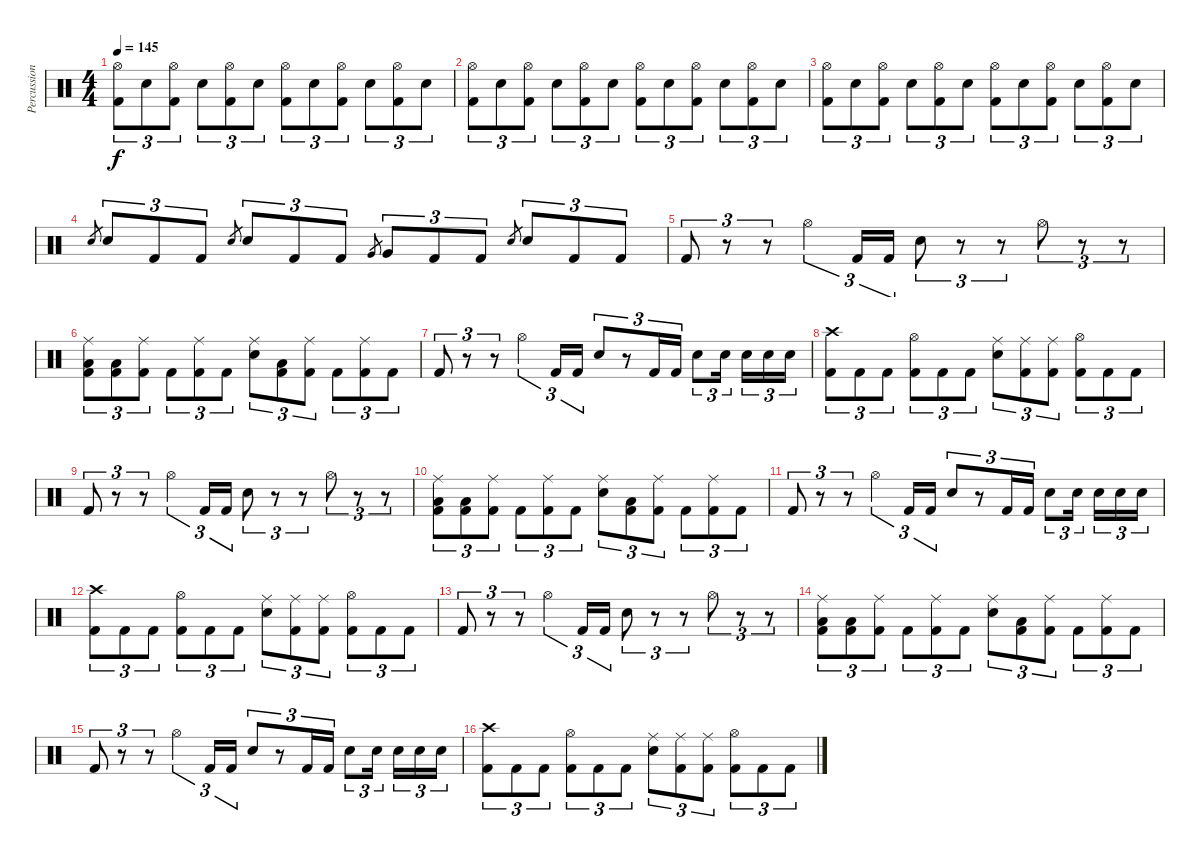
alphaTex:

\track ("Percussion" "Percussion") {instrument percussion}
\staff {score}
\articulation defaults
\ts (4 4)
\tempo 145
\clef neutral
\ks c
("Hi-Hat (open)" "Kick (hit) 2").8{tu (3 2) dy f} "Electric Snare (hit)".8{tu (3 2)} ("Hi-Hat (open)" "Kick (hit) 2").8{tu (3 2)} "Electric Snare (hit)".8{tu (3 2)} ("Hi-Hat (open)" "Kick (hit) 2").8{tu (3 2)} "Electric Snare (hit)".8{tu (3 2)} ("Hi-Hat (open)" "Kick (hit) 2").8{tu (3 2)} "Electric Snare (hit)".8{tu (3 2)} ("Hi-Hat (open)" "Kick (hit) 2").8{tu (3 2)} "Electric Snare (hit)".8{tu (3 2)} ("Hi-Hat (open)" "Kick (hit) 2").8{tu (3 2)} "Electric Snare (hit)".8{tu (3 2)} |
("Hi-Hat (open)" "Kick (hit) 2").8{tu (3 2)} "Electric Snare (hit)".8{tu (3 2)} ("Hi-Hat (open)" "Kick (hit) 2").8{tu (3 2)} "Electric Snare (hit)".8{tu (3 2)} ("Hi-Hat (open)" "Kick (hit) 2").8{tu (3 2)} "Electric Snare (hit)".8{tu (3 2)} ("Hi-Hat (open)" "Kick (hit) 2").8{tu (3 2)} "Electric Snare (hit)".8{tu (3 2)} ("Hi-Hat (open)" "Kick (hit) 2").8{tu (3 2)} "Electric Snare (hit)".8{tu (3 2)} ("Hi-Hat (open)" "Kick (hit) 2").8{tu (3 2)} "Electric Snare (hit)".8{tu (3 2)} |
("Hi-Hat (open)" "Kick (hit) 2").8{tu (3 2)} "Electric Snare (hit)".8{tu (3 2)} ("Hi-Hat (open)" "Kick (hit) 2").8{tu (3 2)} "Electric Snare (hit)".8{tu (3 2)} ("Hi-Hat (open)" "Kick (hit) 2").8{tu (3 2)} "Electric Snare (hit)".8{tu (3 2)} ("Hi-Hat (open)" "Kick (hit) 2").8{tu (3 2)} "Electric Snare (hit)".8{tu (3 2)} ("Hi-Hat (open)" "Kick (hit) 2").8{tu (3 2)} "Electric Snare (hit)".8{tu (3 2)} ("Hi-Hat (open)" "Kick (hit) 2").8{tu (3 2)} "Electric Snare (hit)".8{tu (3 2)} |
"Electric Snare (hit)".8{gr} "Electric Snare (hit)".8{tu (3 2)} "Kick (hit) 2".8{tu (3 2)} "Kick (hit) 2".8{tu (3 2)} "Electric Snare (hit)".8{gr} "Electric Snare (hit)".8{tu (3 2)} "Kick (hit) 2".8{tu (3 2)} "Kick (hit) 2".8{tu (3 2)} "Very Low Tom (hit)".8{gr} "Very Low Tom (hit)".8{tu (3 2)} "Kick (hit) 2".8{tu (3 2)} "Kick (hit) 2".8{tu (3 2)} "Electric Snare (hit)".8{gr} "Electric Snare (hit)".8{tu (3 2)} "Kick (hit) 2".8{tu (3 2)} "Kick (hit) 2".8{tu (3 2)} |
"Kick (hit) 2".8{tu (3 2)} r.8{tu (3 2)} r.8{tu (3 2)} "Hi-Hat (open)".4{tu (3 2)} "Kick (hit) 2".16{tu (3 2)} "Kick (hit) 2".16{tu (3 2)} "Electric Snare (hit)".8{tu (3 2)} r.8{tu (3 2)} r.8{tu (3 2)} "Hi-Hat (open)".8{tu (3 2)} r.8{tu (3 2)} r.8{tu (3 2)} |
("Ride (middle)" "Low Floor Tom (hit)" "Kick (hit) 2").8{tu (3 2)} ("Low Floor Tom (hit)" "Kick (hit) 2").8{tu (3 2)} ("Ride (middle)" "Kick (hit) 2").8{tu (3 2)} "Kick (hit) 2".8{tu (3 2)} ("Ride (middle)" "Kick (hit) 2").8{tu (3 2)} "Kick (hit) 2".8{tu (3 2)} ("Ride (middle)" "Electric Snare (hit)").8{tu (3 2)} ("Low Floor Tom (hit)" "Kick (hit) 2").8{tu (3 2)} ("Ride (middle)" "Kick (hit) 2").8{tu (3 2)} "Kick (hit) 2".8{tu (3 2)} ("Ride (middle)" "Kick (hit) 2").8{tu (3 2)} "Kick (hit) 2".8{tu (3 2)} |
"Kick (hit) 2".8{tu (3 2)} r.8{tu (3 2)} r.8{tu (3 2)} "Hi-Hat (open)".4{tu (3 2)} "Kick (hit) 2".16{tu (3 2)} "Kick (hit) 2".16{tu (3 2)} "Electric Snare (hit)".8{tu (3 2)} r.8{tu (3 2)} "Kick (hit) 2".16{tu (3 2)} "Kick (hit) 2".16{tu (3 2)} "Electric Snare (hit)".8{tu (3 2)} "Electric Snare (hit)".16{tu (3 2)} "Electric Snare (hit)".16{tu (3 2)} "Electric Snare (hit)".16{tu (3 2)} "Electric Snare (hit)".16{tu (3 2)} |
("Crash high (hit)" "Kick (hit) 2").8{tu (3 2)} "Kick (hit) 2".8{tu (3 2)} "Kick (hit) 2".8{tu (3 2)} ("Hi-Hat (open)" "Kick (hit) 2").8{tu (3 2)} "Kick (hit) 2".8{tu (3 2)} "Kick (hit) 2".8{tu (3 2)} ("Ride (middle)" "Electric Snare (hit)").8{tu (3 2)} ("Ride (middle)" "Kick (hit) 2").8{tu (3 2)} ("Ride (middle)" "Kick (hit) 2").8{tu (3 2)} ("Hi-Hat (open)" "Kick (hit) 2").8{tu (3 2)} "Kick (hit) 2".8{tu (3 2)} "Kick (hit) 2".8{tu (3 2)} |
"Kick (hit) 2".8{tu (3 2)} r.8{tu (3 2)} r.8{tu (3 2)} "Hi-Hat (open)".4{tu (3 2)} "Kick (hit) 2".16{tu (3 2)} "Kick (hit) 2".16{tu (3 2)} "Electric Snare (hit)".8{tu (3 2)} r.8{tu (3 2)} r.8{tu (3 2)} "Hi-Hat (open)".8{tu (3 2)} r.8{tu (3 2)} r.8{tu (3 2)} |
("Ride (middle)" "Low Floor Tom (hit)" "Kick (hit) 2").8{tu (3 2)} ("Low Floor Tom (hit)" "Kick (hit) 2").8{tu (3 2)} ("Ride (middle)" "Kick (hit) 2").8{tu (3 2)} "Kick (hit) 2".8{tu (3 2)} ("Ride (middle)" "Kick (hit) 2").8{tu (3 2)} "Kick (hit) 2".8{tu (3 2)} ("Ride (middle)" "Electric Snare (hit)").8{tu (3 2)} ("Low Floor Tom (hit)" "Kick (hit) 2").8{tu (3 2)} ("Ride (middle)" "Kick (hit) 2").8{tu (3 2)} "Kick (hit) 2".8{tu (3 2)} ("Ride (middle)" "Kick (hit) 2").8{tu (3 2)} "Kick (hit) 2".8{tu (3 2)} |
"Kick (hit) 2".8{tu (3 2)} r.8{tu (3 2)} r.8{tu (3 2)} "Hi-Hat (open)".4{tu (3 2)} "Kick (hit) 2".16{tu (3 2)} "Kick (hit) 2".16{tu (3 2)} "Electric Snare (hit)".8{tu (3 2)} r.8{tu (3 2)} "Kick (hit) 2".16{tu (3 2)} "Kick (hit) 2".16{tu (3 2)} "Electric Snare (hit)".8{tu (3 2)} "Electric Snare (hit)".16{tu (3 2)} "Electric Snare (hit)".16{tu (3 2)} "Electric Snare (hit)".16{tu (3 2)} "Electric Snare (hit)".16{tu (3 2)} |
("Crash high (hit)" "Kick (hit) 2").8{tu (3 2)} "Kick (hit) 2".8{tu (3 2)} "Kick (hit) 2".8{tu (3 2)} ("Hi-Hat (open)" "Kick (hit) 2").8{tu (3 2)} "Kick (hit) 2".8{tu (3 2)} "Kick (hit) 2".8{tu (3 2)} ("Ride (middle)" "Electric Snare (hit)").8{tu (3 2)} ("Ride (middle)" "Kick (hit) 2").8{tu (3 2)} ("Ride (middle)" "Kick (hit) 2").8{tu (3 2)} ("Hi-Hat (open)" "Kick (hit) 2").8{tu (3 2)} "Kick (hit) 2".8{tu (3 2)} "Kick (hit) 2".8{tu (3 2)} |
"Kick (hit) 2".8{tu (3 2)} r.8{tu (3 2)} r.8{tu (3 2)} "Hi-Hat (open)".4{tu (3 2)} "Kick (hit) 2".16{tu (3 2)} "Kick (hit) 2".16{tu (3 2)} "Electric Snare (hit)".8{tu (3 2)} r.8{tu (3 2)} r.8{tu (3 2)} "Hi-Hat (open)".8{tu (3 2)} r.8{tu (3 2)} r.8{tu (3 2)} |
("Ride (middle)" "Low Floor Tom (hit)" "Kick (hit) 2").8{tu (3 2)} ("Low Floor Tom (hit)" "Kick (hit) 2").8{tu (3 2)} ("Ride (middle)" "Kick (hit) 2").8{tu (3 2)} "Kick (hit) 2".8{tu (3 2)} ("Ride (middle)" "Kick (hit) 2").8{tu (3 2)} "Kick (hit) 2".8{tu (3 2)} ("Ride (middle)" "Electric Snare (hit)").8{tu (3 2)} ("Low Floor Tom (hit)" "Kick (hit) 2").8{tu (3 2)} ("Ride (middle)" "Kick (hit) 2").8{tu (3 2)} "Kick (hit) 2".8{tu (3 2)} ("Ride (middle)" "Kick (hit) 2").8{tu (3 2)} "Kick (hit) 2".8{tu (3 2)} |
"Kick (hit) 2".8{tu (3 2)} r.8{tu (3 2)} r.8{tu (3 2)} "Hi-Hat (open)".4{tu (3 2)} "Kick (hit) 2".16{tu (3 2)} "Kick (hit) 2".16{tu (3 2)} "Electric Snare (hit)".8{tu (3 2)} r.8{tu (3 2)} "Kick (hit) 2".16{tu (3 2)} "Kick (hit) 2".16{tu (3 2)} "Electric Snare (hit)".8{tu (3 2)} "Electric Snare (hit)".16{tu (3 2)} "Electric Snare (hit)".16{tu (3 2)} "Electric Snare (hit)".16{tu (3 2)} "Electric Snare (hit)".16{tu (3 2)} |
("Crash high (hit)" "Kick (hit) 2").8{tu (3 2)} "Kick (hit) 2".8{tu (3 2)} "Kick (hit) 2".8{tu (3 2)} ("Hi-Hat (open)" "Kick (hit) 2").8{tu (3 2)} "Kick (hit) 2".8{tu (3 2)} "Kick (hit) 2".8{tu (3 2)} ("Ride (middle)" "Electric Snare (hit)").8{tu (3 2)} ("Ride (middle)" "Kick (hit) 2").8{tu (3 2)} ("Ride (middle)" "Kick (hit) 2").8{tu (3 2)} ("Hi-Hat (open)" "Kick (hit) 2").8{tu (3 2)} "Kick (hit) 2".8{tu (3 2)} "Kick (hit) 2".8{tu (3 2)}
